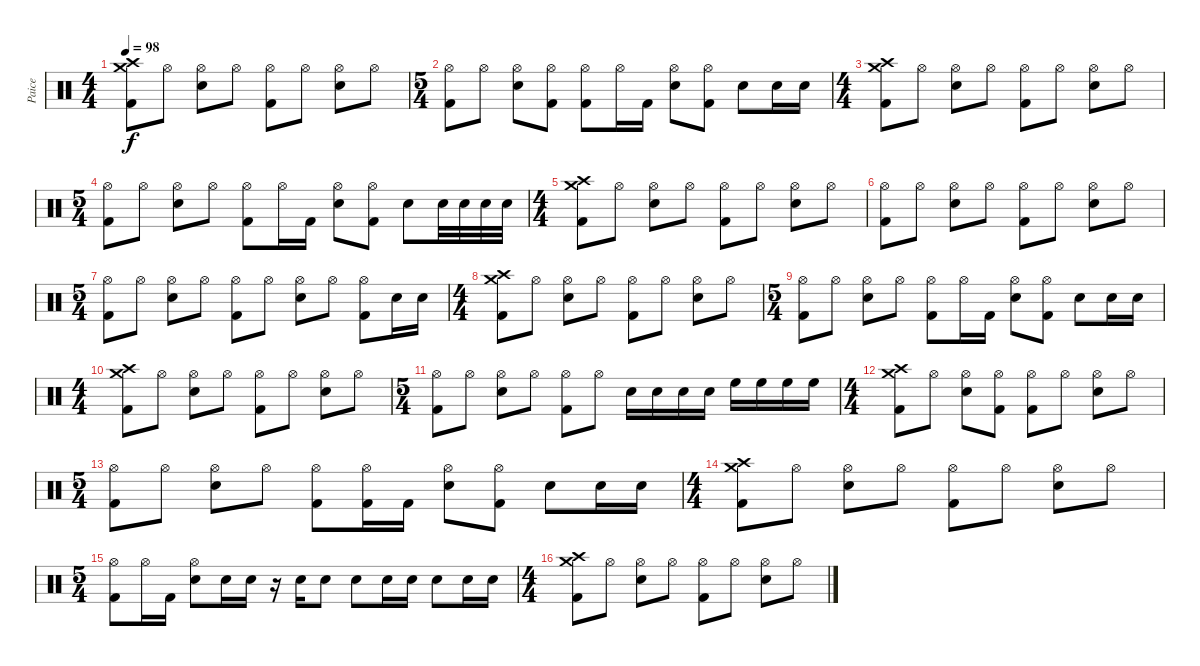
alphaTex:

\track ("Paice" "Paice") {instrument percussion}
\staff {score}
\articulation defaults
\ts (4 4)
\tempo 98
\clef neutral
\ks c
("Crash high (hit)" "Crash medium (hit)" "Kick (hit) 2").8{dy f} "Hi-Hat (open)".8 ("Hi-Hat (open)" "Electric Snare (hit)").8 "Hi-Hat (open)".8 ("Hi-Hat (open)" "Kick (hit) 2").8 "Hi-Hat (open)".8 ("Hi-Hat (open)" "Electric Snare (hit)").8 "Hi-Hat (open)".8 |
\ts (5 4)
("Hi-Hat (open)" "Kick (hit) 2").8 "Hi-Hat (open)".8 ("Hi-Hat (open)" "Electric Snare (hit)").8 ("Hi-Hat (open)" "Kick (hit) 2").8 ("Hi-Hat (open)" "Kick (hit) 2").8 "Hi-Hat (open)".16 "Kick (hit) 2".16 ("Hi-Hat (open)" "Electric Snare (hit)").8 ("Hi-Hat (open)" "Kick (hit) 2").8 "Electric Snare (hit)".8 "Electric Snare (hit)".16 "Electric Snare (hit)".16 |
\ts (4 4)
("Crash high (hit)" "Crash medium (hit)" "Kick (hit) 2").8 "Hi-Hat (open)".8 ("Hi-Hat (open)" "Electric Snare (hit)").8 "Hi-Hat (open)".8 ("Hi-Hat (open)" "Kick (hit) 2").8 "Hi-Hat (open)".8 ("Hi-Hat (open)" "Electric Snare (hit)").8 "Hi-Hat (open)".8 |
\ts (5 4)
("Hi-Hat (open)" "Kick (hit) 2").8 "Hi-Hat (open)".8 ("Hi-Hat (open)" "Electric Snare (hit)").8 "Hi-Hat (open)".8 ("Hi-Hat (open)" "Kick (hit) 2").8 "Hi-Hat (open)".16 "Kick (hit) 2".16 ("Hi-Hat (open)" "Electric Snare (hit)").8 ("Hi-Hat (open)" "Kick (hit) 2").8 "Electric Snare (hit)".8 "Electric Snare (hit)".32 "Electric Snare (hit)".32 "Electric Snare (hit)".32 "Electric Snare (hit)".32 |
\ts (4 4)
("Crash high (hit)" "Crash medium (hit)" "Kick (hit) 2").8 "Hi-Hat (open)".8 ("Hi-Hat (open)" "Electric Snare (hit)").8 "Hi-Hat (open)".8 ("Hi-Hat (open)" "Kick (hit) 2").8 "Hi-Hat (open)".8 ("Hi-Hat (open)" "Electric Snare (hit)").8 "Hi-Hat (open)".8 |
("Hi-Hat (open)" "Kick (hit) 2").8 "Hi-Hat (open)".8 ("Hi-Hat (open)" "Electric Snare (hit)").8 "Hi-Hat (open)".8 ("Hi-Hat (open)" "Kick (hit) 2").8 "Hi-Hat (open)".8 ("Hi-Hat (open)" "Electric Snare (hit)").8 "Hi-Hat (open)".8 |
\ts (5 4)
("Hi-Hat (open)" "Kick (hit) 2").8 "Hi-Hat (open)".8 ("Hi-Hat (open)" "Electric Snare (hit)").8 "Hi-Hat (open)".8 ("Hi-Hat (open)" "Kick (hit) 2").8 "Hi-Hat (open)".8 ("Hi-Hat (open)" "Electric Snare (hit)").8 "Hi-Hat (open)".8 ("Hi-Hat (open)" "Kick (hit) 2").8 "Electric Snare (hit)".16 "Electric Snare (hit)".16 |
\ts (4 4)
("Crash high (hit)" "Crash medium (hit)" "Kick (hit) 2").8 "Hi-Hat (open)".8 ("Hi-Hat (open)" "Electric Snare (hit)").8 "Hi-Hat (open)".8 ("Hi-Hat (open)" "Kick (hit) 2").8 "Hi-Hat (open)".8 ("Hi-Hat (open)" "Electric Snare (hit)").8 "Hi-Hat (open)".8 |
\ts (5 4)
("Hi-Hat (open)" "Kick (hit) 2").8 "Hi-Hat (open)".8 ("Hi-Hat (open)" "Electric Snare (hit)").8 "Hi-Hat (open)".8 ("Hi-Hat (open)" "Kick (hit) 2").8 "Hi-Hat (open)".16 "Kick (hit) 2".16 ("Hi-Hat (open)" "Electric Snare (hit)").8 ("Hi-Hat (open)" "Kick (hit) 2").8 "Electric Snare (hit)".8 "Electric Snare (hit)".16 "Electric Snare (hit)".16 |
\ts (4 4)
("Crash high (hit)" "Crash medium (hit)" "Kick (hit) 2").8 "Hi-Hat (open)".8 ("Hi-Hat (open)" "Electric Snare (hit)").8 "Hi-Hat (open)".8 ("Hi-Hat (open)" "Kick (hit) 2").8 "Hi-Hat (open)".8 ("Hi-Hat (open)" "Electric Snare (hit)").8 "Hi-Hat (open)".8 |
\ts (5 4)
("Hi-Hat (open)" "Kick (hit) 2").8 "Hi-Hat (open)".8 ("Hi-Hat (open)" "Electric Snare (hit)").8 "Hi-Hat (open)".8 ("Hi-Hat (open)" "Kick (hit) 2").8 "Hi-Hat (open)".8 "Electric Snare (hit)".16 "Electric Snare (hit)".16 "Electric Snare (hit)".16 "Electric Snare (hit)".16 "High Floor Tom (hit)".16 "High Floor Tom (hit)".16 "High Floor Tom (hit)".16 "High Floor Tom (hit)".16 |
\ts (4 4)
("Crash high (hit)" "Crash medium (hit)" "Kick (hit) 2").8 "Hi-Hat (open)".8 ("Hi-Hat (open)" "Electric Snare (hit)").8 ("Hi-Hat (open)" "Kick (hit) 2").8 ("Hi-Hat (open)" "Kick (hit) 2").8 "Hi-Hat (open)".8 ("Hi-Hat (open)" "Electric Snare (hit)").8 "Hi-Hat (open)".8 |
\ts (5 4)
("Hi-Hat (open)" "Kick (hit) 2").8 "Hi-Hat (open)".8 ("Hi-Hat (open)" "Electric Snare (hit)").8 "Hi-Hat (open)".8 ("Hi-Hat (open)" "Kick (hit) 2").8 ("Hi-Hat (open)" "Kick (hit) 2").16 "Kick (hit) 2".16 ("Hi-Hat (open)" "Electric Snare (hit)").8 ("Hi-Hat (open)" "Kick (hit) 2").8 "Electric Snare (hit)".8 "Electric Snare (hit)".16 "Electric Snare (hit)".16 |
\ts (4 4)
("Crash high (hit)" "Crash medium (hit)" "Kick (hit) 2").8 "Hi-Hat (open)".8 ("Hi-Hat (open)" "Electric Snare (hit)").8 "Hi-Hat (open)".8 ("Hi-Hat (open)" "Kick (hit) 2").8 "Hi-Hat (open)".8 ("Hi-Hat (open)" "Electric Snare (hit)").8 "Hi-Hat (open)".8 |
\ts (5 4)
("Hi-Hat (open)" "Kick (hit) 2").8 "Hi-Hat (open)".16 "Kick (hit) 2".16 ("Hi-Hat (open)" "Electric Snare (hit)").8 "Electric Snare (hit)".16 "Electric Snare (hit)".16 r.16 "Electric Snare (hit)".16 "Electric Snare (hit)".8 "Electric Snare (hit)".8 "Electric Snare (hit)".16 "Electric Snare (hit)".16 "Electric Snare (hit)".8 "Electric Snare (hit)".16 "Electric Snare (hit)".16 |
\ts (4 4)
("Crash high (hit)" "Crash medium (hit)" "Kick (hit) 2").8 "Hi-Hat (open)".8 ("Hi-Hat (open)" "Electric Snare (hit)").8 "Hi-Hat (open)".8 ("Hi-Hat (open)" "Kick (hit) 2").8 "Hi-Hat (open)".8 ("Hi-Hat (open)" "Electric Snare (hit)").8 "Hi-Hat (open)".8
